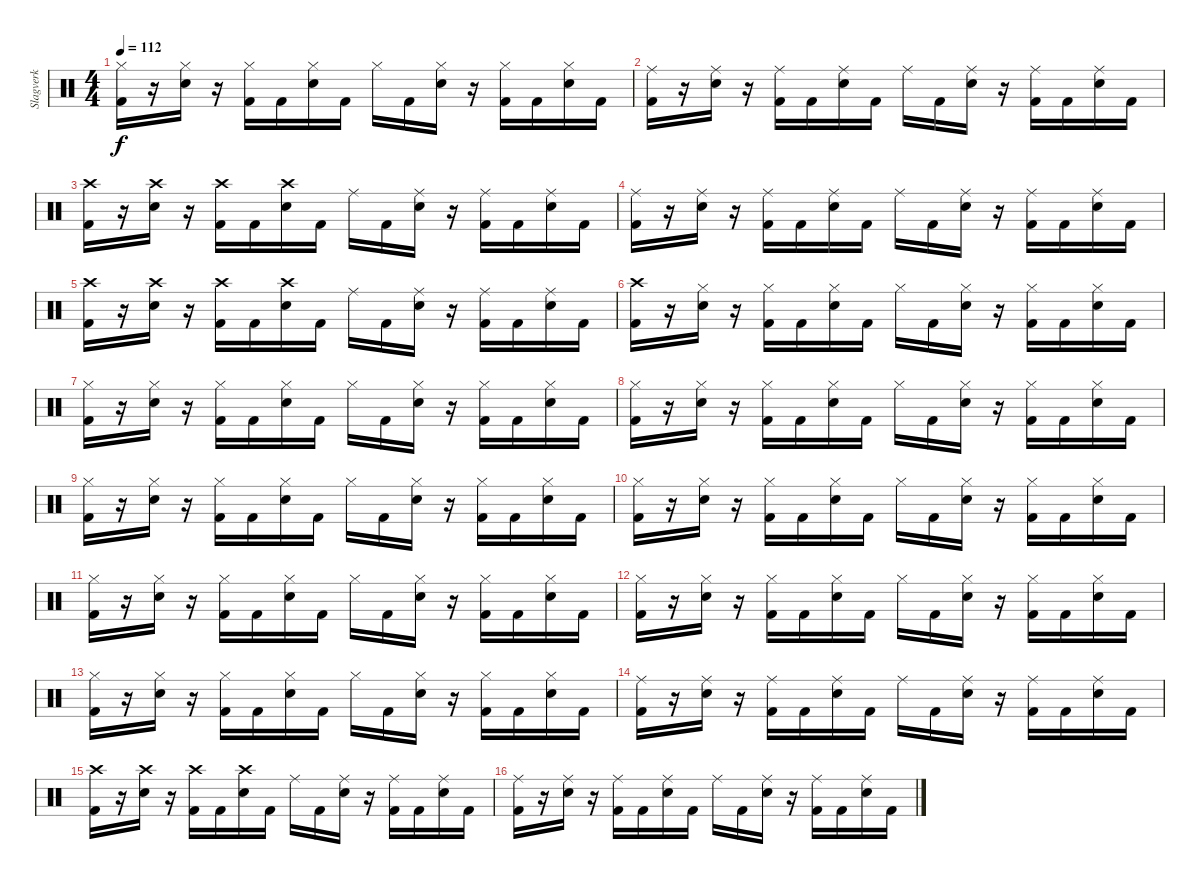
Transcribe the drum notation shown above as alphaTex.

\track ("Slagverk" "Slagverk") {instrument percussion}
\staff {score}
\articulation defaults
\ts (4 4)
\tempo 112
\clef neutral
\ks c
("Hi-Hat (closed)" "Kick (hit) 2").16{dy f} r.16 ("Hi-Hat (closed)" "Snare (hit) 2").16 r.16 ("Hi-Hat (closed)" "Kick (hit) 2").16 "Kick (hit) 2".16 ("Hi-Hat (closed)" "Snare (hit) 2").16 "Kick (hit) 2".16 "Hi-Hat (closed)".16 "Kick (hit) 2".16 ("Hi-Hat (closed)" "Snare (hit) 2").16 r.16 ("Hi-Hat (closed)" "Kick (hit) 2").16 "Kick (hit) 2".16 ("Hi-Hat (closed)" "Snare (hit) 2").16 "Kick (hit) 2".16 |
("Ride (middle)" "Kick (hit) 2").16 r.16 ("Ride (middle)" "Snare (hit) 2").16 r.16 ("Ride (middle)" "Kick (hit) 2").16 "Kick (hit) 2".16 ("Ride (middle)" "Snare (hit) 2").16 "Kick (hit) 2".16 "Ride (middle)".16 "Kick (hit) 2".16 ("Ride (middle)" "Snare (hit) 2").16 r.16 ("Ride (middle)" "Kick (hit) 2").16 "Kick (hit) 2".16 ("Ride (middle)" "Snare (hit) 2").16 "Kick (hit) 2".16 |
("Crash high (hit)" "Kick (hit) 2").16 r.16 ("Crash high (hit)" "Snare (hit) 2").16 r.16 ("Crash high (hit)" "Kick (hit) 2").16 "Kick (hit) 2".16 ("Crash high (hit)" "Snare (hit) 2").16 "Kick (hit) 2".16 "Ride (middle)".16 "Kick (hit) 2".16 ("Ride (middle)" "Snare (hit) 2").16 r.16 ("Ride (middle)" "Kick (hit) 2").16 "Kick (hit) 2".16 ("Ride (middle)" "Snare (hit) 2").16 "Kick (hit) 2".16 |
("Ride (middle)" "Kick (hit) 2").16 r.16 ("Ride (middle)" "Snare (hit) 2").16 r.16 ("Ride (middle)" "Kick (hit) 2").16 "Kick (hit) 2".16 ("Ride (middle)" "Snare (hit) 2").16 "Kick (hit) 2".16 "Ride (middle)".16 "Kick (hit) 2".16 ("Ride (middle)" "Snare (hit) 2").16 r.16 ("Ride (middle)" "Kick (hit) 2").16 "Kick (hit) 2".16 ("Ride (middle)" "Snare (hit) 2").16 "Kick (hit) 2".16 |
("Crash high (hit)" "Kick (hit) 2").16 r.16 ("Crash high (hit)" "Snare (hit) 2").16 r.16 ("Crash high (hit)" "Kick (hit) 2").16 "Kick (hit) 2".16 ("Crash high (hit)" "Snare (hit) 2").16 "Kick (hit) 2".16 "Ride (middle)".16 "Kick (hit) 2".16 ("Ride (middle)" "Snare (hit) 2").16 r.16 ("Ride (middle)" "Kick (hit) 2").16 "Kick (hit) 2".16 ("Ride (middle)" "Snare (hit) 2").16 "Kick (hit) 2".16 |
("Crash high (hit)" "Kick (hit) 2").16 r.16 ("Hi-Hat (closed)" "Snare (hit) 2").16 r.16 ("Hi-Hat (closed)" "Kick (hit) 2").16 "Kick (hit) 2".16 ("Hi-Hat (closed)" "Snare (hit) 2").16 "Kick (hit) 2".16 "Hi-Hat (closed)".16 "Kick (hit) 2".16 ("Hi-Hat (closed)" "Snare (hit) 2").16 r.16 ("Hi-Hat (closed)" "Kick (hit) 2").16 "Kick (hit) 2".16 ("Hi-Hat (closed)" "Snare (hit) 2").16 "Kick (hit) 2".16 |
("Hi-Hat (closed)" "Kick (hit) 2").16 r.16 ("Hi-Hat (closed)" "Snare (hit) 2").16 r.16 ("Hi-Hat (closed)" "Kick (hit) 2").16 "Kick (hit) 2".16 ("Hi-Hat (closed)" "Snare (hit) 2").16 "Kick (hit) 2".16 "Hi-Hat (closed)".16 "Kick (hit) 2".16 ("Hi-Hat (closed)" "Snare (hit) 2").16 r.16 ("Hi-Hat (closed)" "Kick (hit) 2").16 "Kick (hit) 2".16 ("Hi-Hat (closed)" "Snare (hit) 2").16 "Kick (hit) 2".16 |
("Hi-Hat (closed)" "Kick (hit) 2").16 r.16 ("Hi-Hat (closed)" "Snare (hit) 2").16 r.16 ("Hi-Hat (closed)" "Kick (hit) 2").16 "Kick (hit) 2".16 ("Hi-Hat (closed)" "Snare (hit) 2").16 "Kick (hit) 2".16 "Hi-Hat (closed)".16 "Kick (hit) 2".16 ("Hi-Hat (closed)" "Snare (hit) 2").16 r.16 ("Hi-Hat (closed)" "Kick (hit) 2").16 "Kick (hit) 2".16 ("Hi-Hat (closed)" "Snare (hit) 2").16 "Kick (hit) 2".16 |
("Hi-Hat (closed)" "Kick (hit) 2").16 r.16 ("Hi-Hat (closed)" "Snare (hit) 2").16 r.16 ("Hi-Hat (closed)" "Kick (hit) 2").16 "Kick (hit) 2".16 ("Hi-Hat (closed)" "Snare (hit) 2").16 "Kick (hit) 2".16 "Hi-Hat (closed)".16 "Kick (hit) 2".16 ("Hi-Hat (closed)" "Snare (hit) 2").16 r.16 ("Hi-Hat (closed)" "Kick (hit) 2").16 "Kick (hit) 2".16 ("Hi-Hat (closed)" "Snare (hit) 2").16 "Kick (hit) 2".16 |
("Hi-Hat (closed)" "Kick (hit) 2").16 r.16 ("Hi-Hat (closed)" "Snare (hit) 2").16 r.16 ("Hi-Hat (closed)" "Kick (hit) 2").16 "Kick (hit) 2".16 ("Hi-Hat (closed)" "Snare (hit) 2").16 "Kick (hit) 2".16 "Hi-Hat (closed)".16 "Kick (hit) 2".16 ("Hi-Hat (closed)" "Snare (hit) 2").16 r.16 ("Hi-Hat (closed)" "Kick (hit) 2").16 "Kick (hit) 2".16 ("Hi-Hat (closed)" "Snare (hit) 2").16 "Kick (hit) 2".16 |
("Hi-Hat (closed)" "Kick (hit) 2").16 r.16 ("Hi-Hat (closed)" "Snare (hit) 2").16 r.16 ("Hi-Hat (closed)" "Kick (hit) 2").16 "Kick (hit) 2".16 ("Hi-Hat (closed)" "Snare (hit) 2").16 "Kick (hit) 2".16 "Hi-Hat (closed)".16 "Kick (hit) 2".16 ("Hi-Hat (closed)" "Snare (hit) 2").16 r.16 ("Hi-Hat (closed)" "Kick (hit) 2").16 "Kick (hit) 2".16 ("Hi-Hat (closed)" "Snare (hit) 2").16 "Kick (hit) 2".16 |
("Hi-Hat (closed)" "Kick (hit) 2").16 r.16 ("Hi-Hat (closed)" "Snare (hit) 2").16 r.16 ("Hi-Hat (closed)" "Kick (hit) 2").16 "Kick (hit) 2".16 ("Hi-Hat (closed)" "Snare (hit) 2").16 "Kick (hit) 2".16 "Hi-Hat (closed)".16 "Kick (hit) 2".16 ("Hi-Hat (closed)" "Snare (hit) 2").16 r.16 ("Hi-Hat (closed)" "Kick (hit) 2").16 "Kick (hit) 2".16 ("Hi-Hat (closed)" "Snare (hit) 2").16 "Kick (hit) 2".16 |
("Hi-Hat (closed)" "Kick (hit) 2").16 r.16 ("Hi-Hat (closed)" "Snare (hit) 2").16 r.16 ("Hi-Hat (closed)" "Kick (hit) 2").16 "Kick (hit) 2".16 ("Hi-Hat (closed)" "Snare (hit) 2").16 "Kick (hit) 2".16 "Hi-Hat (closed)".16 "Kick (hit) 2".16 ("Hi-Hat (closed)" "Snare (hit) 2").16 r.16 ("Hi-Hat (closed)" "Kick (hit) 2").16 "Kick (hit) 2".16 ("Hi-Hat (closed)" "Snare (hit) 2").16 "Kick (hit) 2".16 |
("Ride (middle)" "Kick (hit) 2").16 r.16 ("Ride (middle)" "Snare (hit) 2").16 r.16 ("Ride (middle)" "Kick (hit) 2").16 "Kick (hit) 2".16 ("Ride (middle)" "Snare (hit) 2").16 "Kick (hit) 2".16 "Ride (middle)".16 "Kick (hit) 2".16 ("Ride (middle)" "Snare (hit) 2").16 r.16 ("Ride (middle)" "Kick (hit) 2").16 "Kick (hit) 2".16 ("Ride (middle)" "Snare (hit) 2").16 "Kick (hit) 2".16 |
("Crash high (hit)" "Kick (hit) 2").16 r.16 ("Crash high (hit)" "Snare (hit) 2").16 r.16 ("Crash high (hit)" "Kick (hit) 2").16 "Kick (hit) 2".16 ("Crash high (hit)" "Snare (hit) 2").16 "Kick (hit) 2".16 "Ride (middle)".16 "Kick (hit) 2".16 ("Ride (middle)" "Snare (hit) 2").16 r.16 ("Ride (middle)" "Kick (hit) 2").16 "Kick (hit) 2".16 ("Ride (middle)" "Snare (hit) 2").16 "Kick (hit) 2".16 |
("Ride (middle)" "Kick (hit) 2").16 r.16 ("Ride (middle)" "Snare (hit) 2").16 r.16 ("Ride (middle)" "Kick (hit) 2").16 "Kick (hit) 2".16 ("Ride (middle)" "Snare (hit) 2").16 "Kick (hit) 2".16 "Ride (middle)".16 "Kick (hit) 2".16 ("Ride (middle)" "Snare (hit) 2").16 r.16 ("Ride (middle)" "Kick (hit) 2").16 "Kick (hit) 2".16 ("Ride (middle)" "Snare (hit) 2").16 "Kick (hit) 2".16
